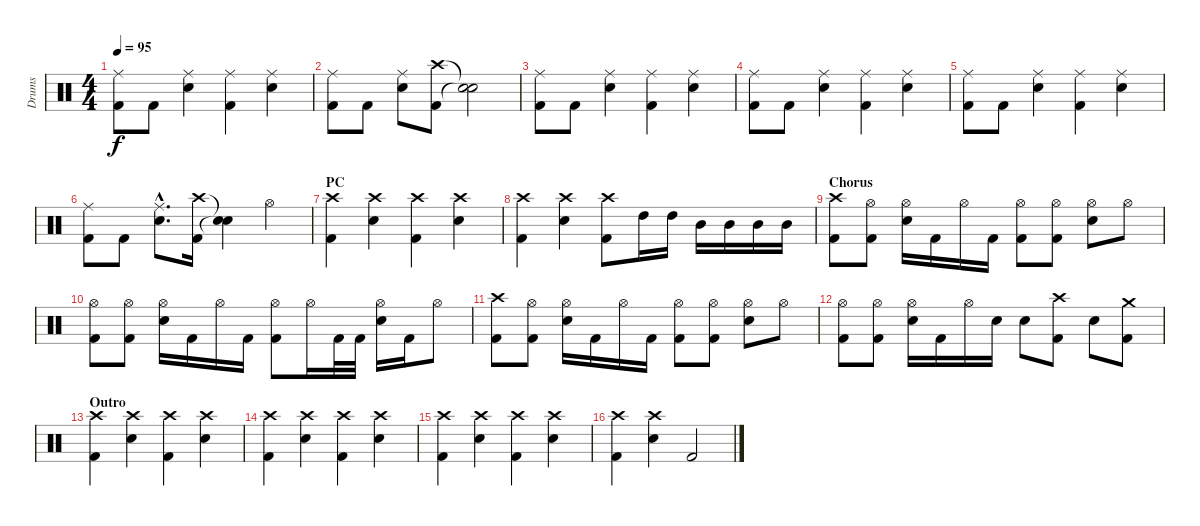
\track ("Drums" "Drums") {instrument percussion}
\staff {score}
\articulation defaults
\ts (4 4)
\tempo 95
\clef neutral
\ks c
("Ride (middle)" "Kick (hit) 2").8{dy f} "Kick (hit) 2".8 ("Ride (middle)" "Electric Snare (hit)").4 ("Ride (middle)" "Kick (hit) 2").4 ("Ride (middle)" "Electric Snare (hit)").4 |
("Ride (middle)" "Kick (hit) 2").8 "Kick (hit) 2".8 ("Ride (middle)" "Electric Snare (hit)").8 ("Crash high (hit)" "Kick (hit) 2").8 ("Snare (hit)"{t} "Snare (hit)"{t}).2 |
("Ride (middle)" "Kick (hit) 2").8 "Kick (hit) 2".8 ("Ride (middle)" "Electric Snare (hit)").4 ("Ride (middle)" "Kick (hit) 2").4 ("Ride (middle)" "Electric Snare (hit)").4 |
("Ride (middle)" "Kick (hit) 2").8 "Kick (hit) 2".8 ("Ride (middle)" "Electric Snare (hit)").4 ("Ride (middle)" "Kick (hit) 2").4 ("Ride (middle)" "Electric Snare (hit)").4 |
("Ride (middle)" "Kick (hit) 2").8 "Kick (hit) 2".8 ("Ride (middle)" "Electric Snare (hit)").4 ("Ride (middle)" "Kick (hit) 2").4 ("Ride (middle)" "Electric Snare (hit)").4 |
("Ride (middle)" "Kick (hit) 2").8 "Kick (hit) 2".8 ("Ride (middle)"{hac} "Electric Snare (hit)"{hac}).8{d} ("Crash high (hit)" "Kick (hit) 2").16 ("Snare (hit)"{t} "Snare (hit)"{t}).4 "Hi-Hat (open)".4 |
\section ("" "PC")
("Crash high (hit)" "Kick (hit) 2").4 ("Crash high (hit)" "Electric Snare (hit)").4 ("Crash high (hit)" "Kick (hit) 2").4 ("Crash high (hit)" "Electric Snare (hit)").4 |
("Crash high (hit)" "Kick (hit) 2").4 ("Crash high (hit)" "Electric Snare (hit)").4 ("Crash high (hit)" "Kick (hit) 2").8 "High Tom (hit)".16 "High Tom (hit)".16 "Mid Tom (hit)".16 "Mid Tom (hit)".16 "Mid Tom (hit)".16 "Mid Tom (hit)".16 |
\section ("" "Chorus")
("Crash high (hit)" "Kick (hit) 2").8 ("Hi-Hat (open)" "Kick (hit) 2").8 ("Hi-Hat (open)" "Electric Snare (hit)").16 "Kick (hit) 2".16 "Hi-Hat (open)".16 "Kick (hit) 2".16 ("Hi-Hat (open)" "Kick (hit) 2").8 ("Hi-Hat (open)" "Kick (hit) 2").8 ("Hi-Hat (open)" "Electric Snare (hit)").8 "Hi-Hat (open)".8 |
("Hi-Hat (open)" "Kick (hit) 2").8 ("Hi-Hat (open)" "Kick (hit) 2").8 ("Hi-Hat (open)" "Electric Snare (hit)").16 "Kick (hit) 2".16 "Hi-Hat (open)".16 "Kick (hit) 2".16 ("Hi-Hat (open)" "Kick (hit) 2").8 "Hi-Hat (open)".16 "Kick (hit) 2".32 "Kick (hit) 2".32 ("Hi-Hat (open)" "Electric Snare (hit)").16 "Kick (hit) 2".16 "Hi-Hat (open)".8 |
("Crash high (hit)" "Kick (hit) 2").8 ("Hi-Hat (open)" "Kick (hit) 2").8 ("Hi-Hat (open)" "Electric Snare (hit)").16 "Kick (hit) 2".16 "Hi-Hat (open)".16 "Kick (hit) 2".16 ("Hi-Hat (open)" "Kick (hit) 2").8 ("Hi-Hat (open)" "Kick (hit) 2").8 ("Hi-Hat (open)" "Electric Snare (hit)").8 "Hi-Hat (open)".8 |
("Hi-Hat (open)" "Kick (hit) 2").8 ("Hi-Hat (open)" "Kick (hit) 2").8 ("Hi-Hat (open)" "Electric Snare (hit)").16 "Kick (hit) 2".16 "Hi-Hat (open)".16 "Electric Snare (hit)".16 "Electric Snare (hit)".8 ("Crash high (hit)" "Kick (hit) 2").8 "Electric Snare (hit)".8 ("Crash medium (hit)" "Kick (hit) 2").8 |
\section ("" "Outro")
("Crash high (hit)" "Kick (hit) 2").4 ("Crash high (hit)" "Electric Snare (hit)").4 ("Crash high (hit)" "Kick (hit) 2").4 ("Crash high (hit)" "Electric Snare (hit)").4 |
("Crash high (hit)" "Kick (hit) 2").4 ("Crash high (hit)" "Electric Snare (hit)").4 ("Crash high (hit)" "Kick (hit) 2").4 ("Crash high (hit)" "Electric Snare (hit)").4 |
("Crash high (hit)" "Kick (hit) 2").4 ("Crash high (hit)" "Electric Snare (hit)").4 ("Crash high (hit)" "Kick (hit) 2").4 ("Crash high (hit)" "Electric Snare (hit)").4 |
("Crash high (hit)" "Kick (hit) 2").4 ("Crash high (hit)" "Electric Snare (hit)").4 "Kick (hit) 2".2
